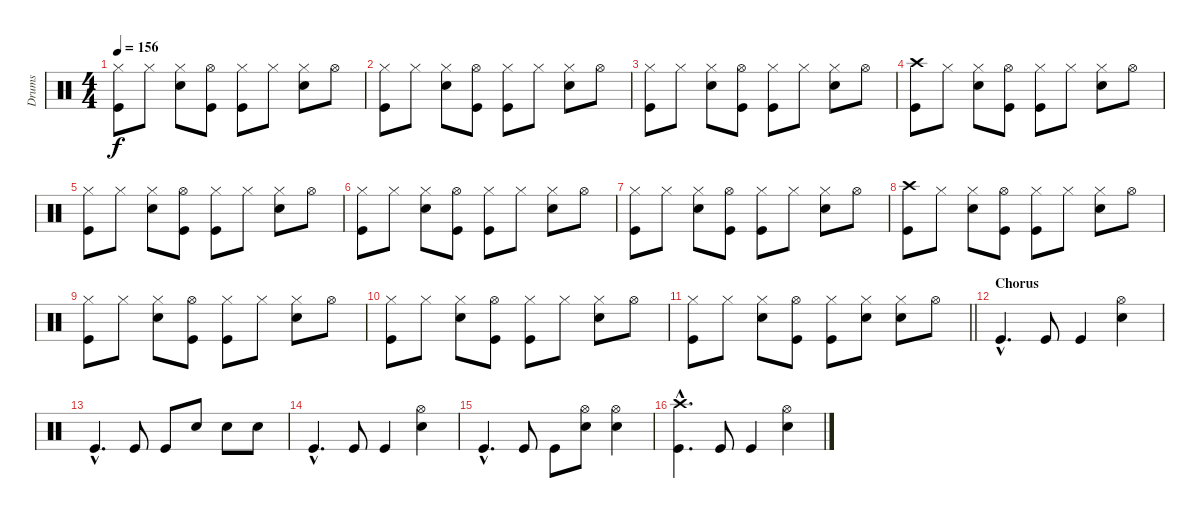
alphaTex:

\track ("Drums" "Drums") {instrument percussion}
\staff {score}
\articulation defaults
\ts (4 4)
\tempo 156
\clef neutral
\ks c
("Hi-Hat (closed)" "Kick (hit)").8{dy f} "Hi-Hat (closed)".8 ("Hi-Hat (closed)" "Snare (hit) 2").8 ("Hi-Hat (open)" "Kick (hit)").8 ("Hi-Hat (closed)" "Kick (hit)").8 "Hi-Hat (closed)".8 ("Hi-Hat (closed)" "Snare (hit) 2").8 "Hi-Hat (open)".8 |
("Hi-Hat (closed)" "Kick (hit)").8 "Hi-Hat (closed)".8 ("Hi-Hat (closed)" "Snare (hit) 2").8 ("Hi-Hat (open)" "Kick (hit)").8 ("Hi-Hat (closed)" "Kick (hit)").8 "Hi-Hat (closed)".8 ("Hi-Hat (closed)" "Snare (hit) 2").8 "Hi-Hat (open)".8 |
("Hi-Hat (closed)" "Kick (hit)").8 "Hi-Hat (closed)".8 ("Hi-Hat (closed)" "Snare (hit) 2").8 ("Hi-Hat (open)" "Kick (hit)").8 ("Hi-Hat (closed)" "Kick (hit)").8 "Hi-Hat (closed)".8 ("Hi-Hat (closed)" "Snare (hit) 2").8 "Hi-Hat (open)".8 |
("Crash high (hit)" "Kick (hit)").8 "Hi-Hat (closed)".8 ("Hi-Hat (closed)" "Snare (hit) 2").8 ("Hi-Hat (open)" "Kick (hit)").8 ("Hi-Hat (closed)" "Kick (hit)").8 "Hi-Hat (closed)".8 ("Hi-Hat (closed)" "Snare (hit) 2").8 "Hi-Hat (open)".8 |
("Hi-Hat (closed)" "Kick (hit)").8 "Hi-Hat (closed)".8 ("Hi-Hat (closed)" "Snare (hit) 2").8 ("Hi-Hat (open)" "Kick (hit)").8 ("Hi-Hat (closed)" "Kick (hit)").8 "Hi-Hat (closed)".8 ("Hi-Hat (closed)" "Snare (hit) 2").8 "Hi-Hat (open)".8 |
("Hi-Hat (closed)" "Kick (hit)").8 "Hi-Hat (closed)".8 ("Hi-Hat (closed)" "Snare (hit) 2").8 ("Hi-Hat (open)" "Kick (hit)").8 ("Hi-Hat (closed)" "Kick (hit)").8 "Hi-Hat (closed)".8 ("Hi-Hat (closed)" "Snare (hit) 2").8 "Hi-Hat (open)".8 |
("Hi-Hat (closed)" "Kick (hit)").8 "Hi-Hat (closed)".8 ("Hi-Hat (closed)" "Snare (hit) 2").8 ("Hi-Hat (open)" "Kick (hit)").8 ("Hi-Hat (closed)" "Kick (hit)").8 "Hi-Hat (closed)".8 ("Hi-Hat (closed)" "Snare (hit) 2").8 "Hi-Hat (open)".8 |
("Crash high (hit)" "Kick (hit)").8 "Hi-Hat (closed)".8 ("Hi-Hat (closed)" "Snare (hit) 2").8 ("Hi-Hat (open)" "Kick (hit)").8 ("Hi-Hat (closed)" "Kick (hit)").8 "Hi-Hat (closed)".8 ("Hi-Hat (closed)" "Snare (hit) 2").8 "Hi-Hat (open)".8 |
("Hi-Hat (closed)" "Kick (hit)").8 "Hi-Hat (closed)".8 ("Hi-Hat (closed)" "Snare (hit) 2").8 ("Hi-Hat (open)" "Kick (hit)").8 ("Hi-Hat (closed)" "Kick (hit)").8 "Hi-Hat (closed)".8 ("Hi-Hat (closed)" "Snare (hit) 2").8 "Hi-Hat (open)".8 |
("Hi-Hat (closed)" "Kick (hit)").8 "Hi-Hat (closed)".8 ("Hi-Hat (closed)" "Snare (hit) 2").8 ("Hi-Hat (open)" "Kick (hit)").8 ("Hi-Hat (closed)" "Kick (hit)").8 "Hi-Hat (closed)".8 ("Hi-Hat (closed)" "Snare (hit) 2").8 "Hi-Hat (open)".8 |
\barLineRight lightlight
("Hi-Hat (closed)" "Kick (hit)").8 "Hi-Hat (closed)".8 ("Hi-Hat (closed)" "Snare (hit) 2").8 ("Hi-Hat (open)" "Kick (hit)").8 ("Hi-Hat (closed)" "Kick (hit)").8 ("Hi-Hat (closed)" "Snare (hit) 2").8 ("Hi-Hat (closed)" "Snare (hit) 2").8 "Hi-Hat (open)".8 |
\section ("" "Chorus")
"Kick (hit)"{hac}.4{d} "Kick (hit)".8 "Kick (hit)".4 ("Hi-Hat (open)" "Snare (hit) 2").4 |
"Kick (hit)"{hac}.4{d} "Kick (hit)".8 "Kick (hit)".8 "Snare (hit) 2".8 "Snare (hit) 2".8 "Snare (hit) 2".8 |
"Kick (hit)"{hac}.4{d} "Kick (hit)".8 "Kick (hit)".4 ("Hi-Hat (open)" "Snare (hit) 2").4 |
"Kick (hit)"{hac}.4{d} "Kick (hit)".8 "Kick (hit)".8 ("Hi-Hat (open)" "Snare (hit) 2").8 ("Hi-Hat (open)" "Snare (hit) 2").4 |
("Crash high (hit)"{hac} "Kick (hit)"{hac}).4{d} "Kick (hit)".8 "Kick (hit)".4 ("Hi-Hat (open)" "Snare (hit) 2").4
